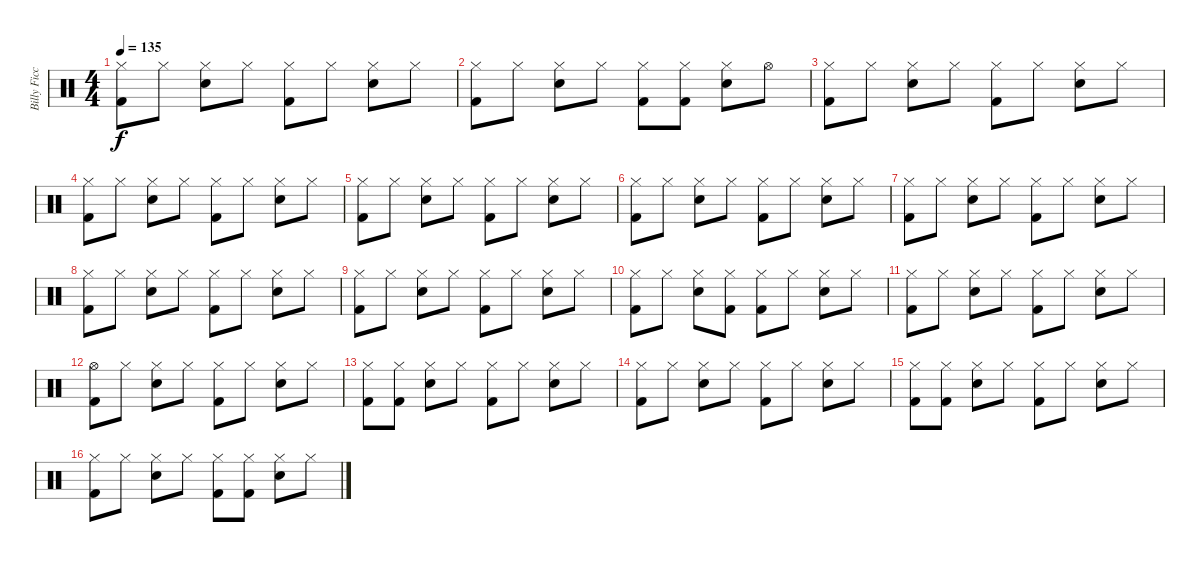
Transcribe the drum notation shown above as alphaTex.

\track ("Billy Ficca" "Billy Ficc") {instrument percussion}
\staff {score}
\articulation defaults
\ts (4 4)
\tempo 135
\clef neutral
\ks c
("Kick (hit) 2" "Hi-Hat (closed)").8{dy f} "Hi-Hat (closed)".8 ("Electric Snare (hit)" "Hi-Hat (closed)").8 "Hi-Hat (closed)".8 ("Kick (hit) 2" "Hi-Hat (closed)").8 "Hi-Hat (closed)".8 ("Electric Snare (hit)" "Hi-Hat (closed)").8 "Hi-Hat (closed)".8 |
("Kick (hit) 2" "Hi-Hat (closed)").8 "Hi-Hat (closed)".8 ("Electric Snare (hit)" "Hi-Hat (closed)").8 "Hi-Hat (closed)".8 ("Kick (hit) 2" "Hi-Hat (closed)").8 ("Kick (hit) 2" "Hi-Hat (closed)").8 ("Electric Snare (hit)" "Hi-Hat (closed)").8 "Hi-Hat (open)".8 |
("Kick (hit) 2" "Hi-Hat (closed)").8 "Hi-Hat (closed)".8 ("Electric Snare (hit)" "Hi-Hat (closed)").8 "Hi-Hat (closed)".8 ("Kick (hit) 2" "Hi-Hat (closed)").8 "Hi-Hat (closed)".8 ("Electric Snare (hit)" "Hi-Hat (closed)").8 "Hi-Hat (closed)".8 |
("Hi-Hat (closed)" "Kick (hit) 2").8 "Hi-Hat (closed)".8 ("Hi-Hat (closed)" "Electric Snare (hit)").8 "Hi-Hat (closed)".8 ("Hi-Hat (closed)" "Kick (hit) 2").8 "Hi-Hat (closed)".8 ("Hi-Hat (closed)" "Electric Snare (hit)").8 "Hi-Hat (closed)".8 |
("Hi-Hat (closed)" "Kick (hit) 2").8 "Hi-Hat (closed)".8 ("Hi-Hat (closed)" "Electric Snare (hit)").8 "Hi-Hat (closed)".8 ("Hi-Hat (closed)" "Kick (hit) 2").8 "Hi-Hat (closed)".8 ("Hi-Hat (closed)" "Electric Snare (hit)").8 "Hi-Hat (closed)".8 |
("Hi-Hat (closed)" "Kick (hit) 2").8 "Hi-Hat (closed)".8 ("Hi-Hat (closed)" "Electric Snare (hit)").8 "Hi-Hat (closed)".8 ("Hi-Hat (closed)" "Kick (hit) 2").8 "Hi-Hat (closed)".8 ("Hi-Hat (closed)" "Electric Snare (hit)").8 "Hi-Hat (closed)".8 |
("Hi-Hat (closed)" "Kick (hit) 2").8 "Hi-Hat (closed)".8 ("Hi-Hat (closed)" "Electric Snare (hit)").8 "Hi-Hat (closed)".8 ("Hi-Hat (closed)" "Kick (hit) 2").8 "Hi-Hat (closed)".8 ("Hi-Hat (closed)" "Electric Snare (hit)").8 "Hi-Hat (closed)".8 |
("Hi-Hat (closed)" "Kick (hit) 2").8 "Hi-Hat (closed)".8 ("Hi-Hat (closed)" "Electric Snare (hit)").8 "Hi-Hat (closed)".8 ("Hi-Hat (closed)" "Kick (hit) 2").8 "Hi-Hat (closed)".8 ("Hi-Hat (closed)" "Electric Snare (hit)").8 "Hi-Hat (closed)".8 |
("Hi-Hat (closed)" "Kick (hit) 2").8 "Hi-Hat (closed)".8 ("Hi-Hat (closed)" "Electric Snare (hit)").8 "Hi-Hat (closed)".8 ("Hi-Hat (closed)" "Kick (hit) 2").8 "Hi-Hat (closed)".8 ("Hi-Hat (closed)" "Electric Snare (hit)").8 "Hi-Hat (closed)".8 |
("Hi-Hat (closed)" "Kick (hit) 2").8 "Hi-Hat (closed)".8 ("Hi-Hat (closed)" "Electric Snare (hit)").8 ("Hi-Hat (closed)" "Kick (hit) 2").8 ("Hi-Hat (closed)" "Kick (hit) 2").8 "Hi-Hat (closed)".8 ("Hi-Hat (closed)" "Electric Snare (hit)").8 "Hi-Hat (closed)".8 |
("Hi-Hat (closed)" "Kick (hit) 2").8 "Hi-Hat (closed)".8 ("Hi-Hat (closed)" "Electric Snare (hit)").8 "Hi-Hat (closed)".8 ("Hi-Hat (closed)" "Kick (hit) 2").8 "Hi-Hat (closed)".8 ("Hi-Hat (closed)" "Electric Snare (hit)").8 "Hi-Hat (closed)".8 |
("Hi-Hat (open)" "Kick (hit) 2").8 "Hi-Hat (closed)".8 ("Hi-Hat (closed)" "Electric Snare (hit)").8 "Hi-Hat (closed)".8 ("Hi-Hat (closed)" "Kick (hit) 2").8 "Hi-Hat (closed)".8 ("Hi-Hat (closed)" "Electric Snare (hit)").8 "Hi-Hat (closed)".8 |
("Hi-Hat (closed)" "Kick (hit) 2").8 ("Hi-Hat (closed)" "Kick (hit) 2").8 ("Hi-Hat (closed)" "Electric Snare (hit)").8 "Hi-Hat (closed)".8 ("Hi-Hat (closed)" "Kick (hit) 2").8 "Hi-Hat (closed)".8 ("Hi-Hat (closed)" "Electric Snare (hit)").8 "Hi-Hat (closed)".8 |
("Hi-Hat (closed)" "Kick (hit) 2").8 "Hi-Hat (closed)".8 ("Hi-Hat (closed)" "Electric Snare (hit)").8 "Hi-Hat (closed)".8 ("Hi-Hat (closed)" "Kick (hit) 2").8 "Hi-Hat (closed)".8 ("Hi-Hat (closed)" "Electric Snare (hit)").8 "Hi-Hat (closed)".8 |
("Hi-Hat (closed)" "Kick (hit) 2").8 ("Hi-Hat (closed)" "Kick (hit) 2").8 ("Hi-Hat (closed)" "Electric Snare (hit)").8 "Hi-Hat (closed)".8 ("Hi-Hat (closed)" "Kick (hit) 2").8 "Hi-Hat (closed)".8 ("Hi-Hat (closed)" "Electric Snare (hit)").8 "Hi-Hat (closed)".8 |
("Hi-Hat (closed)" "Kick (hit) 2").8 "Hi-Hat (closed)".8 ("Hi-Hat (closed)" "Electric Snare (hit)").8 "Hi-Hat (closed)".8 ("Hi-Hat (closed)" "Kick (hit) 2").8 ("Hi-Hat (closed)" "Kick (hit) 2").8 ("Hi-Hat (closed)" "Electric Snare (hit)").8 "Hi-Hat (closed)".8
